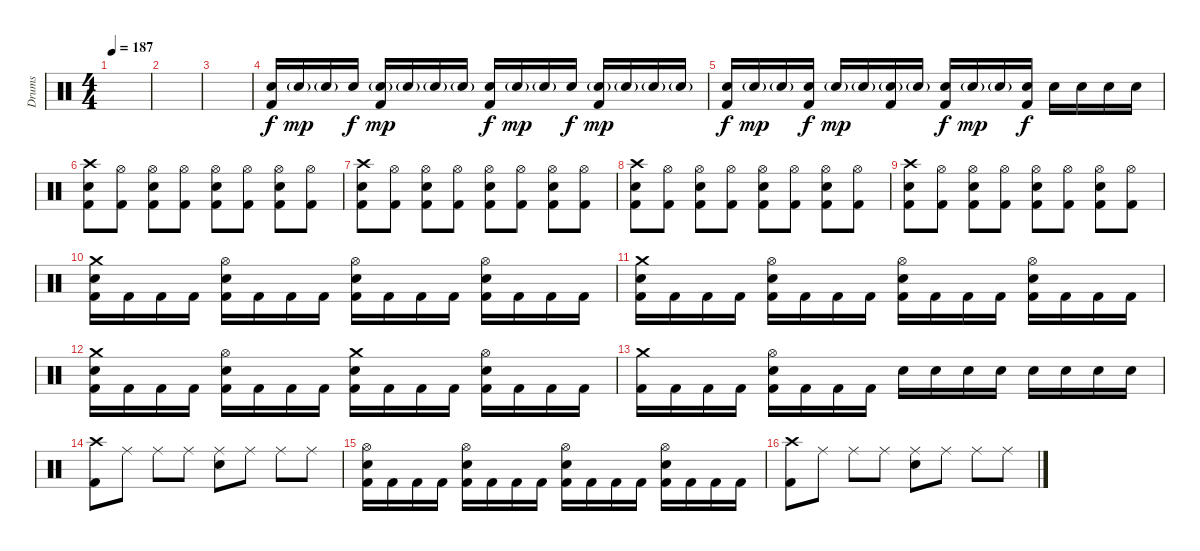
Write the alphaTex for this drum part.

\track ("Drums" "Drums") {instrument percussion}
\staff {score}
\articulation defaults
\ts (4 4)
\tempo 187
\clef neutral
\ks c
|
|
|
("Kick (hit) 2" "Electric Snare (hit)").16 "Electric Snare (hit)"{g}.16{dy mp} "Electric Snare (hit)"{g}.16 "Electric Snare (hit)".16{dy f} ("Kick (hit) 2" "Electric Snare (hit)"{g}).16{dy mp} "Electric Snare (hit)"{g}.16 "Electric Snare (hit)"{g}.16 "Electric Snare (hit)"{g}.16 ("Kick (hit) 2" "Electric Snare (hit)").16{dy f} "Electric Snare (hit)"{g}.16{dy mp} "Electric Snare (hit)"{g}.16 "Electric Snare (hit)".16{dy f} ("Kick (hit) 2" "Electric Snare (hit)"{g}).16{dy mp} "Electric Snare (hit)"{g}.16 "Electric Snare (hit)"{g}.16 "Electric Snare (hit)"{g}.16 |
("Kick (hit) 2" "Electric Snare (hit)").16{dy f} "Electric Snare (hit)"{g}.16{dy mp} "Electric Snare (hit)"{g}.16 ("Kick (hit) 2" "Electric Snare (hit)").16{dy f} "Electric Snare (hit)"{g}.16{dy mp} "Electric Snare (hit)"{g}.16 ("Kick (hit) 2" "Electric Snare (hit)"{g}).16 "Electric Snare (hit)"{g}.16 ("Kick (hit) 2" "Electric Snare (hit)").16{dy f} "Electric Snare (hit)"{g}.16{dy mp} "Electric Snare (hit)"{g}.16 ("Kick (hit) 2" "Electric Snare (hit)").16{dy f} "Electric Snare (hit)".16 "Electric Snare (hit)".16 "Electric Snare (hit)".16 "Electric Snare (hit)".16 |
("Kick (hit) 2" "Electric Snare (hit)" "Crash high (hit)").8 ("Kick (hit) 2" "Hi-Hat (open)").8 ("Kick (hit) 2" "Electric Snare (hit)" "Hi-Hat (open)").8 ("Kick (hit) 2" "Hi-Hat (open)").8 ("Kick (hit) 2" "Electric Snare (hit)" "Hi-Hat (open)").8 ("Kick (hit) 2" "Hi-Hat (open)").8 ("Kick (hit) 2" "Electric Snare (hit)" "Hi-Hat (open)").8 ("Kick (hit) 2" "Hi-Hat (open)").8 |
("Kick (hit) 2" "Electric Snare (hit)" "Crash high (hit)").8 ("Kick (hit) 2" "Hi-Hat (open)").8 ("Kick (hit) 2" "Electric Snare (hit)" "Hi-Hat (open)").8 ("Kick (hit) 2" "Hi-Hat (open)").8 ("Kick (hit) 2" "Electric Snare (hit)" "Hi-Hat (open)").8 ("Kick (hit) 2" "Hi-Hat (open)").8 ("Kick (hit) 2" "Electric Snare (hit)" "Hi-Hat (open)").8 ("Kick (hit) 2" "Hi-Hat (open)").8 |
("Kick (hit) 2" "Electric Snare (hit)" "Crash high (hit)").8 ("Kick (hit) 2" "Hi-Hat (open)").8 ("Kick (hit) 2" "Electric Snare (hit)" "Hi-Hat (open)").8 ("Kick (hit) 2" "Hi-Hat (open)").8 ("Kick (hit) 2" "Electric Snare (hit)" "Hi-Hat (open)").8 ("Kick (hit) 2" "Hi-Hat (open)").8 ("Kick (hit) 2" "Electric Snare (hit)" "Hi-Hat (open)").8 ("Kick (hit) 2" "Hi-Hat (open)").8 |
("Kick (hit) 2" "Electric Snare (hit)" "Crash high (hit)").8 ("Kick (hit) 2" "Hi-Hat (open)").8 ("Kick (hit) 2" "Electric Snare (hit)" "Hi-Hat (open)").8 ("Kick (hit) 2" "Hi-Hat (open)").8 ("Kick (hit) 2" "Electric Snare (hit)" "Hi-Hat (open)").8 ("Kick (hit) 2" "Hi-Hat (open)").8 ("Kick (hit) 2" "Electric Snare (hit)" "Hi-Hat (open)").8 ("Kick (hit) 2" "Hi-Hat (open)").8 |
("Kick (hit) 2" "Electric Snare (hit)" "Crash medium (hit)").16 "Kick (hit) 2".16 "Kick (hit) 2".16 "Kick (hit) 2".16 ("Kick (hit) 2" "Electric Snare (hit)" "Hi-Hat (open)").16 "Kick (hit) 2".16 "Kick (hit) 2".16 "Kick (hit) 2".16 ("Kick (hit) 2" "Electric Snare (hit)" "Hi-Hat (open)").16 "Kick (hit) 2".16 "Kick (hit) 2".16 "Kick (hit) 2".16 ("Kick (hit) 2" "Electric Snare (hit)" "Hi-Hat (open)").16 "Kick (hit) 2".16 "Kick (hit) 2".16 "Kick (hit) 2".16 |
("Kick (hit) 2" "Electric Snare (hit)" "Crash medium (hit)").16 "Kick (hit) 2".16 "Kick (hit) 2".16 "Kick (hit) 2".16 ("Kick (hit) 2" "Electric Snare (hit)" "Hi-Hat (open)").16 "Kick (hit) 2".16 "Kick (hit) 2".16 "Kick (hit) 2".16 ("Kick (hit) 2" "Electric Snare (hit)" "Hi-Hat (open)").16 "Kick (hit) 2".16 "Kick (hit) 2".16 "Kick (hit) 2".16 ("Kick (hit) 2" "Electric Snare (hit)" "Hi-Hat (open)").16 "Kick (hit) 2".16 "Kick (hit) 2".16 "Kick (hit) 2".16 |
("Kick (hit) 2" "Electric Snare (hit)" "Crash medium (hit)").16 "Kick (hit) 2".16 "Kick (hit) 2".16 "Kick (hit) 2".16 ("Kick (hit) 2" "Electric Snare (hit)" "Hi-Hat (open)").16 "Kick (hit) 2".16 "Kick (hit) 2".16 "Kick (hit) 2".16 ("Kick (hit) 2" "Electric Snare (hit)" "Crash medium (hit)").16 "Kick (hit) 2".16 "Kick (hit) 2".16 "Kick (hit) 2".16 ("Kick (hit) 2" "Electric Snare (hit)" "Hi-Hat (open)").16 "Kick (hit) 2".16 "Kick (hit) 2".16 "Kick (hit) 2".16 |
("Kick (hit) 2" "Crash medium (hit)").16 "Kick (hit) 2".16 "Kick (hit) 2".16 "Kick (hit) 2".16 ("Kick (hit) 2" "Electric Snare (hit)" "Hi-Hat (open)").16 "Kick (hit) 2".16 "Kick (hit) 2".16 "Kick (hit) 2".16 "Electric Snare (hit)".16 "Electric Snare (hit)".16 "Electric Snare (hit)".16 "Electric Snare (hit)".16 "Electric Snare (hit)".16 "Electric Snare (hit)".16 "Electric Snare (hit)".16 "Electric Snare (hit)".16 |
("Crash high (hit)" "Kick (hit) 2").8 "Ride (middle)".8 "Ride (middle)".8 "Ride (middle)".8 ("Ride (middle)" "Electric Snare (hit)").8 "Ride (middle)".8 "Ride (middle)".8 "Ride (middle)".8 |
("Kick (hit) 2" "Electric Snare (hit)" "Hi-Hat (open)").16 "Kick (hit) 2".16 "Kick (hit) 2".16 "Kick (hit) 2".16 ("Kick (hit) 2" "Electric Snare (hit)" "Hi-Hat (open)").16 "Kick (hit) 2".16 "Kick (hit) 2".16 "Kick (hit) 2".16 ("Kick (hit) 2" "Electric Snare (hit)" "Hi-Hat (open)").16 "Kick (hit) 2".16 "Kick (hit) 2".16 "Kick (hit) 2".16 ("Kick (hit) 2" "Electric Snare (hit)" "Hi-Hat (open)").16 "Kick (hit) 2".16 "Kick (hit) 2".16 "Kick (hit) 2".16 |
("Crash high (hit)" "Kick (hit) 2").8 "Ride (middle)".8 "Ride (middle)".8 "Ride (middle)".8 ("Ride (middle)" "Electric Snare (hit)").8 "Ride (middle)".8 "Ride (middle)".8 "Ride (middle)".8
